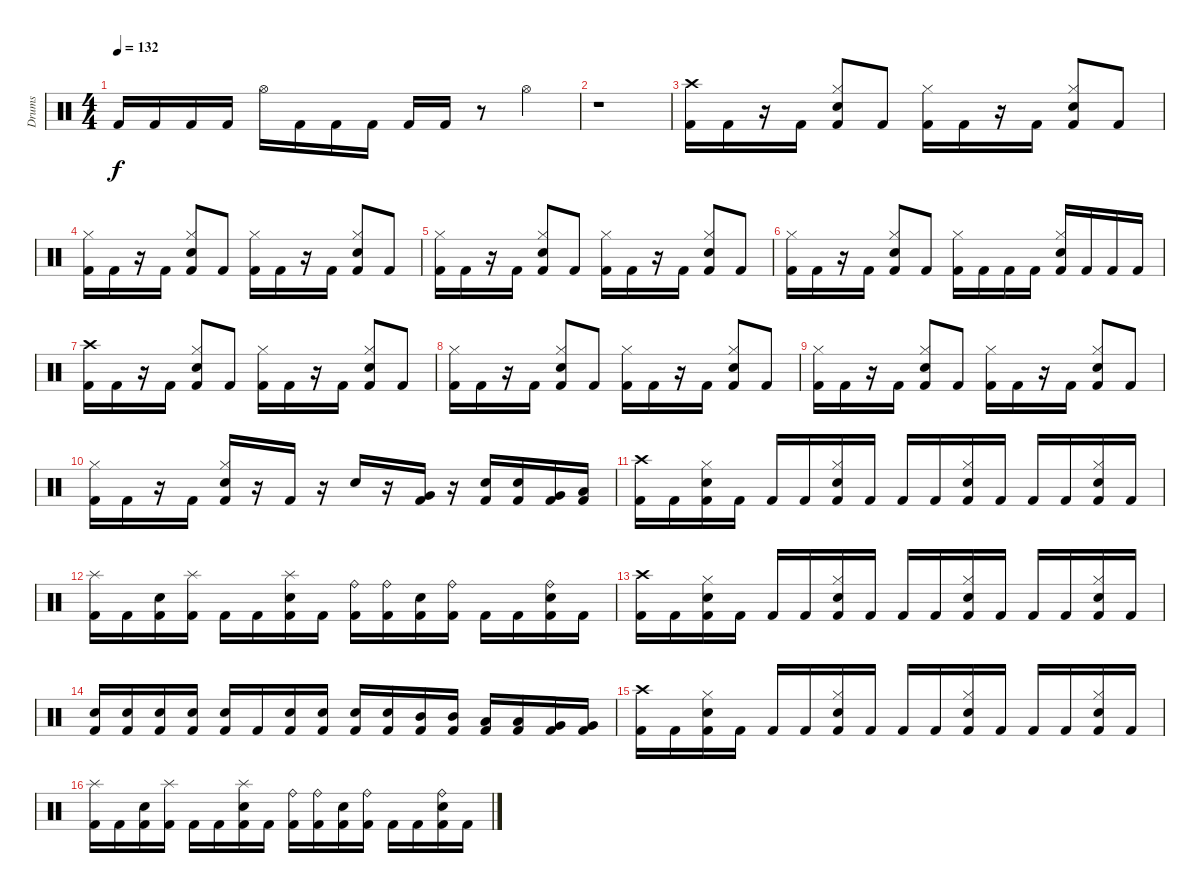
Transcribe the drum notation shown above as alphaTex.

\track ("Drums" "Drums") {instrument percussion}
\staff {score}
\articulation defaults
\ts (4 4)
\tempo 132
\clef neutral
\ks c "Kick (hit) 2".16{dy f} "Kick (hit) 2".16 "Kick (hit) 2".16 "Kick (hit) 2".16 "Hi-Hat (open)".16 "Kick (hit) 2".16 "Kick (hit) 2".16 "Kick (hit) 2".16 "Kick (hit) 2".16 "Kick (hit) 2".16
r.8 "Hi-Hat (open)".4 |
r.1 |
("Crash high (hit)" "Kick (hit) 2").16 "Kick (hit) 2".16 r.16 "Kick (hit) 2".16 ("Hi-Hat (closed)" "Electric Snare (hit)" "Kick (hit) 2").8 "Kick (hit) 2".8 ("Hi-Hat (closed)" "Kick (hit) 2").16 "Kick (hit) 2".16 r.16 "Kick (hit) 2".16 ("Hi-Hat (closed)" "Electric Snare (hit)" "Kick (hit) 2").8 "Kick (hit) 2".8 |
("Hi-Hat (closed)" "Kick (hit) 2").16 "Kick (hit) 2".16 r.16 "Kick (hit) 2".16 ("Hi-Hat (closed)" "Electric Snare (hit)" "Kick (hit) 2").8 "Kick (hit) 2".8 ("Hi-Hat (closed)" "Kick (hit) 2").16 "Kick (hit) 2".16 r.16 "Kick (hit) 2".16 ("Hi-Hat (closed)" "Electric Snare (hit)" "Kick (hit) 2").8 "Kick (hit) 2".8 |
("Hi-Hat (closed)" "Kick (hit) 2").16 "Kick (hit) 2".16 r.16 "Kick (hit) 2".16 ("Hi-Hat (closed)" "Electric Snare (hit)" "Kick (hit) 2").8 "Kick (hit) 2".8 ("Hi-Hat (closed)" "Kick (hit) 2").16 "Kick (hit) 2".16 r.16 "Kick (hit) 2".16 ("Hi-Hat (closed)" "Electric Snare (hit)" "Kick (hit) 2").8 "Kick (hit) 2".8 |
("Hi-Hat (closed)" "Kick (hit) 2").16 "Kick (hit) 2".16 r.16 "Kick (hit) 2".16 ("Hi-Hat (closed)" "Electric Snare (hit)" "Kick (hit) 2").8 "Kick (hit) 2".8 ("Hi-Hat (closed)" "Kick (hit) 2").16 "Kick (hit) 2".16 "Kick (hit) 2".16 "Kick (hit) 2".16 ("Hi-Hat (closed)" "Electric Snare (hit)" "Kick (hit) 2").16 "Kick (hit) 2".16 "Kick (hit) 2".16 "Kick (hit) 2".16 |
("Crash high (hit)" "Kick (hit) 2").16 "Kick (hit) 2".16 r.16 "Kick (hit) 2".16 ("Hi-Hat (closed)" "Electric Snare (hit)" "Kick (hit) 2").8 "Kick (hit) 2".8 ("Hi-Hat (closed)" "Kick (hit) 2").16 "Kick (hit) 2".16 r.16 "Kick (hit) 2".16 ("Hi-Hat (closed)" "Electric Snare (hit)" "Kick (hit) 2").8 "Kick (hit) 2".8 |
("Hi-Hat (closed)" "Kick (hit) 2").16 "Kick (hit) 2".16 r.16 "Kick (hit) 2".16 ("Hi-Hat (closed)" "Electric Snare (hit)" "Kick (hit) 2").8 "Kick (hit) 2".8 ("Hi-Hat (closed)" "Kick (hit) 2").16 "Kick (hit) 2".16 r.16 "Kick (hit) 2".16 ("Hi-Hat (closed)" "Electric Snare (hit)" "Kick (hit) 2").8 "Kick (hit) 2".8 |
("Hi-Hat (closed)" "Kick (hit) 2").16 "Kick (hit) 2".16 r.16 "Kick (hit) 2".16 ("Hi-Hat (closed)" "Electric Snare (hit)" "Kick (hit) 2").8 "Kick (hit) 2".8 ("Hi-Hat (closed)" "Kick (hit) 2").16 "Kick (hit) 2".16 r.16 "Kick (hit) 2".16 ("Hi-Hat (closed)" "Electric Snare (hit)" "Kick (hit) 2").8 "Kick (hit) 2".8 |
("Hi-Hat (closed)" "Kick (hit) 2").16 "Kick (hit) 2".16 r.16 "Kick (hit) 2".16 ("Hi-Hat (closed)" "Electric Snare (hit)" "Kick (hit) 2").16 r.16 "Kick (hit) 2".16 r.16 "Electric Snare (hit)".16 r.16 ("Very Low Tom (hit)" "Kick (hit) 2").16 r.16 ("Electric Snare (hit)" "Kick (hit) 2").16 ("Electric Snare (hit)" "Kick (hit) 2").16 ("Very Low Tom (hit)" "Kick (hit) 2").16 ("Low Floor Tom (hit)" "Kick (hit) 2").16 |
("Crash high (hit)" "Kick (hit) 2").16 "Kick (hit) 2".16 ("Hi-Hat (closed)" "Electric Snare (hit)" "Kick (hit) 2").16 "Kick (hit) 2".16 "Kick (hit) 2".16 "Kick (hit) 2".16 ("Hi-Hat (closed)" "Electric Snare (hit)" "Kick (hit) 2").16 "Kick (hit) 2".16 "Kick (hit) 2".16 "Kick (hit) 2".16 ("Hi-Hat (closed)" "Electric Snare (hit)" "Kick (hit) 2").16 "Kick (hit) 2".16 "Kick (hit) 2".16 "Kick (hit) 2".16 ("Hi-Hat (closed)" "Electric Snare (hit)" "Kick (hit) 2").16 "Kick (hit) 2".16 |
("Splash (hit)" "Kick (hit) 2").16 "Kick (hit) 2".16 ("Electric Snare (hit)" "Kick (hit) 2").16 ("Splash (hit)" "Kick (hit) 2").16 "Kick (hit) 2".16 "Kick (hit) 2".16 ("Splash (hit)" "Electric Snare (hit)" "Kick (hit) 2").16 "Kick (hit) 2".16 ("Ride (bell)" "Kick (hit) 2").16 ("Ride (bell)" "Kick (hit) 2").16 ("Electric Snare (hit)" "Kick (hit) 2").16 ("Ride (bell)" "Kick (hit) 2").16 "Kick (hit) 2".16 "Kick (hit) 2".16 ("Ride (bell)" "Electric Snare (hit)" "Kick (hit) 2").16 "Kick (hit) 2".16 |
("Crash high (hit)" "Kick (hit) 2").16 "Kick (hit) 2".16 ("Hi-Hat (closed)" "Electric Snare (hit)" "Kick (hit) 2").16 "Kick (hit) 2".16 "Kick (hit) 2".16 "Kick (hit) 2".16 ("Hi-Hat (closed)" "Electric Snare (hit)" "Kick (hit) 2").16 "Kick (hit) 2".16 "Kick (hit) 2".16 "Kick (hit) 2".16 ("Hi-Hat (closed)" "Electric Snare (hit)" "Kick (hit) 2").16 "Kick (hit) 2".16 "Kick (hit) 2".16 "Kick (hit) 2".16 ("Hi-Hat (closed)" "Electric Snare (hit)" "Kick (hit) 2").16 "Kick (hit) 2".16 |
("Electric Snare (hit)" "Kick (hit) 2").16 ("Electric Snare (hit)" "Kick (hit) 2").16 ("Electric Snare (hit)" "Kick (hit) 2").16 ("Electric Snare (hit)" "Kick (hit) 2").16 ("Electric Snare (hit)" "Kick (hit) 2").16 "Kick (hit) 2".16 ("Electric Snare (hit)" "Kick (hit) 2").16 ("Electric Snare (hit)" "Kick (hit) 2").16 ("Electric Snare (hit)" "Kick (hit) 2").16 ("Electric Snare (hit)" "Kick (hit) 2").16 ("Mid Tom (hit)" "Kick (hit) 2").16 ("Mid Tom (hit)" "Kick (hit) 2").16 ("Low Tom (hit)" "Kick (hit) 2").16 ("Low Tom (hit)" "Kick (hit) 2").16 ("Very Low Tom (hit)" "Kick (hit) 2").16 ("Very Low Tom (hit)" "Kick (hit) 2").16 |
("Crash high (hit)" "Kick (hit) 2").16 "Kick (hit) 2".16 ("Hi-Hat (closed)" "Electric Snare (hit)" "Kick (hit) 2").16 "Kick (hit) 2".16 "Kick (hit) 2".16 "Kick (hit) 2".16 ("Hi-Hat (closed)" "Electric Snare (hit)" "Kick (hit) 2").16 "Kick (hit) 2".16 "Kick (hit) 2".16 "Kick (hit) 2".16 ("Hi-Hat (closed)" "Electric Snare (hit)" "Kick (hit) 2").16 "Kick (hit) 2".16 "Kick (hit) 2".16 "Kick (hit) 2".16 ("Hi-Hat (closed)" "Electric Snare (hit)" "Kick (hit) 2").16 "Kick (hit) 2".16 |
("Splash (hit)" "Kick (hit) 2").16 "Kick (hit) 2".16 ("Electric Snare (hit)" "Kick (hit) 2").16 ("Splash (hit)" "Kick (hit) 2").16 "Kick (hit) 2".16 "Kick (hit) 2".16 ("Splash (hit)" "Electric Snare (hit)" "Kick (hit) 2").16 "Kick (hit) 2".16 ("Ride (bell)" "Kick (hit) 2").16 ("Ride (bell)" "Kick (hit) 2").16 ("Electric Snare (hit)" "Kick (hit) 2").16 ("Ride (bell)" "Kick (hit) 2").16 "Kick (hit) 2".16 "Kick (hit) 2".16 ("Ride (bell)" "Electric Snare (hit)" "Kick (hit) 2").16 "Kick (hit) 2".16
